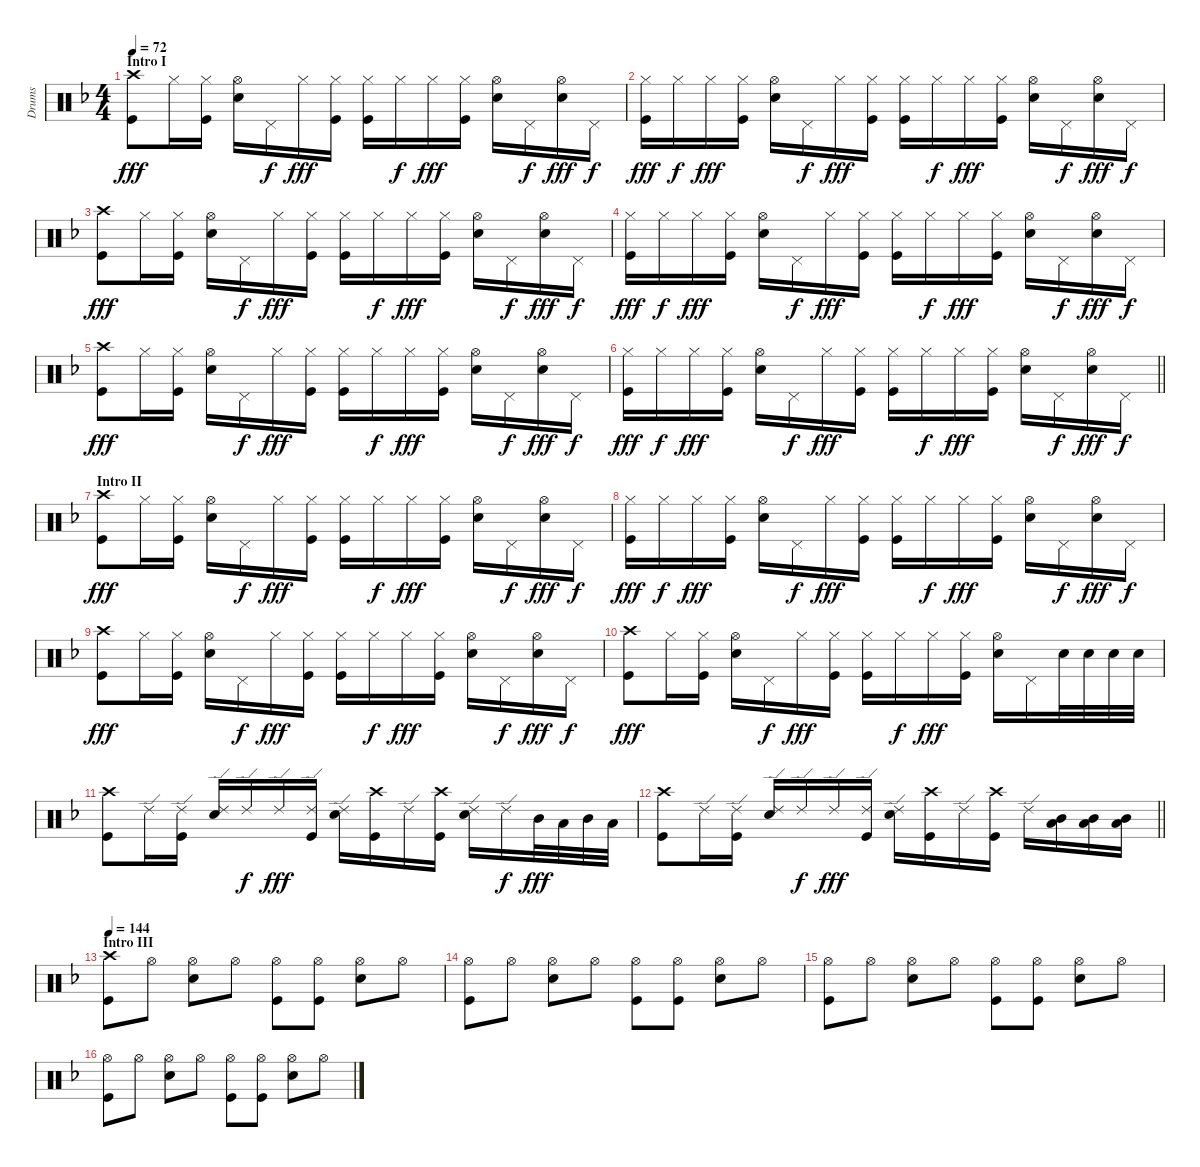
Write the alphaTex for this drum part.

\track ("Drums" "Drums") {instrument percussion}
\staff {score}
\articulation defaults
\ts (4 4)
\section ("" "Intro I")
\tempo 72
\clef neutral
\ks f
("Crash high (hit)" "Kick (hit)").8{dy fff} "Hi-Hat (closed)".16 ("Hi-Hat (closed)" "Kick (hit)").16 ("Hi-Hat (open)" "Snare (hit) 2").16 "Pedal Hi-Hat (hit)".16{dy f} "Hi-Hat (closed)".16{dy fff} ("Hi-Hat (closed)" "Kick (hit)").16 ("Hi-Hat (closed)" "Kick (hit)").16 "Hi-Hat (closed)".16{dy f} "Hi-Hat (closed)".16{dy fff} ("Hi-Hat (closed)" "Kick (hit)").16 ("Hi-Hat (open)" "Snare (hit) 2").16 "Pedal Hi-Hat (hit)".16{dy f} ("Hi-Hat (open)" "Snare (hit) 2").16{dy fff} "Pedal Hi-Hat (hit)".16{dy f} |
("Hi-Hat (closed)" "Kick (hit)").16{dy fff} "Hi-Hat (closed)".16{dy f} "Hi-Hat (closed)".16{dy fff} ("Hi-Hat (closed)" "Kick (hit)").16 ("Hi-Hat (open)" "Snare (hit) 2").16 "Pedal Hi-Hat (hit)".16{dy f} "Hi-Hat (closed)".16{dy fff} ("Hi-Hat (closed)" "Kick (hit)").16 ("Hi-Hat (closed)" "Kick (hit)").16 "Hi-Hat (closed)".16{dy f} "Hi-Hat (closed)".16{dy fff} ("Hi-Hat (closed)" "Kick (hit)").16 ("Hi-Hat (open)" "Snare (hit) 2").16 "Pedal Hi-Hat (hit)".16{dy f} ("Hi-Hat (open)" "Snare (hit) 2").16{dy fff} "Pedal Hi-Hat (hit)".16{dy f} |
("Crash high (hit)" "Kick (hit)").8{dy fff} "Hi-Hat (closed)".16 ("Hi-Hat (closed)" "Kick (hit)").16 ("Hi-Hat (open)" "Snare (hit) 2").16 "Pedal Hi-Hat (hit)".16{dy f} "Hi-Hat (closed)".16{dy fff} ("Hi-Hat (closed)" "Kick (hit)").16 ("Hi-Hat (closed)" "Kick (hit)").16 "Hi-Hat (closed)".16{dy f} "Hi-Hat (closed)".16{dy fff} ("Hi-Hat (closed)" "Kick (hit)").16 ("Hi-Hat (open)" "Snare (hit) 2").16 "Pedal Hi-Hat (hit)".16{dy f} ("Hi-Hat (open)" "Snare (hit) 2").16{dy fff} "Pedal Hi-Hat (hit)".16{dy f} |
("Hi-Hat (closed)" "Kick (hit)").16{dy fff} "Hi-Hat (closed)".16{dy f} "Hi-Hat (closed)".16{dy fff} ("Hi-Hat (closed)" "Kick (hit)").16 ("Hi-Hat (open)" "Snare (hit) 2").16 "Pedal Hi-Hat (hit)".16{dy f} "Hi-Hat (closed)".16{dy fff} ("Hi-Hat (closed)" "Kick (hit)").16 ("Hi-Hat (closed)" "Kick (hit)").16 "Hi-Hat (closed)".16{dy f} "Hi-Hat (closed)".16{dy fff} ("Hi-Hat (closed)" "Kick (hit)").16 ("Hi-Hat (open)" "Snare (hit) 2").16 "Pedal Hi-Hat (hit)".16{dy f} ("Hi-Hat (open)" "Snare (hit) 2").16{dy fff} "Pedal Hi-Hat (hit)".16{dy f} |
("Crash high (hit)" "Kick (hit)").8{dy fff} "Hi-Hat (closed)".16 ("Hi-Hat (closed)" "Kick (hit)").16 ("Hi-Hat (open)" "Snare (hit) 2").16 "Pedal Hi-Hat (hit)".16{dy f} "Hi-Hat (closed)".16{dy fff} ("Hi-Hat (closed)" "Kick (hit)").16 ("Hi-Hat (closed)" "Kick (hit)").16 "Hi-Hat (closed)".16{dy f} "Hi-Hat (closed)".16{dy fff} ("Hi-Hat (closed)" "Kick (hit)").16 ("Hi-Hat (open)" "Snare (hit) 2").16 "Pedal Hi-Hat (hit)".16{dy f} ("Hi-Hat (open)" "Snare (hit) 2").16{dy fff} "Pedal Hi-Hat (hit)".16{dy f} |
\barLineRight lightlight
("Hi-Hat (closed)" "Kick (hit)").16{dy fff} "Hi-Hat (closed)".16{dy f} "Hi-Hat (closed)".16{dy fff} ("Hi-Hat (closed)" "Kick (hit)").16 ("Hi-Hat (open)" "Snare (hit) 2").16 "Pedal Hi-Hat (hit)".16{dy f} "Hi-Hat (closed)".16{dy fff} ("Hi-Hat (closed)" "Kick (hit)").16 ("Hi-Hat (closed)" "Kick (hit)").16 "Hi-Hat (closed)".16{dy f} "Hi-Hat (closed)".16{dy fff} ("Hi-Hat (closed)" "Kick (hit)").16 ("Hi-Hat (open)" "Snare (hit) 2").16 "Pedal Hi-Hat (hit)".16{dy f} ("Hi-Hat (open)" "Snare (hit) 2").16{dy fff} "Pedal Hi-Hat (hit)".16{dy f} |
\section ("" "Intro II")
("Crash high (hit)" "Kick (hit)").8{dy fff} "Hi-Hat (closed)".16 ("Hi-Hat (closed)" "Kick (hit)").16 ("Hi-Hat (open)" "Snare (hit) 2").16 "Pedal Hi-Hat (hit)".16{dy f} "Hi-Hat (closed)".16{dy fff} ("Hi-Hat (closed)" "Kick (hit)").16 ("Hi-Hat (closed)" "Kick (hit)").16 "Hi-Hat (closed)".16{dy f} "Hi-Hat (closed)".16{dy fff} ("Hi-Hat (closed)" "Kick (hit)").16 ("Hi-Hat (open)" "Snare (hit) 2").16 "Pedal Hi-Hat (hit)".16{dy f} ("Hi-Hat (open)" "Snare (hit) 2").16{dy fff} "Pedal Hi-Hat (hit)".16{dy f} |
("Hi-Hat (closed)" "Kick (hit)").16{dy fff} "Hi-Hat (closed)".16{dy f} "Hi-Hat (closed)".16{dy fff} ("Hi-Hat (closed)" "Kick (hit)").16 ("Hi-Hat (open)" "Snare (hit) 2").16 "Pedal Hi-Hat (hit)".16{dy f} "Hi-Hat (closed)".16{dy fff} ("Hi-Hat (closed)" "Kick (hit)").16 ("Hi-Hat (closed)" "Kick (hit)").16 "Hi-Hat (closed)".16{dy f} "Hi-Hat (closed)".16{dy fff} ("Hi-Hat (closed)" "Kick (hit)").16 ("Hi-Hat (open)" "Snare (hit) 2").16 "Pedal Hi-Hat (hit)".16{dy f} ("Hi-Hat (open)" "Snare (hit) 2").16{dy fff} "Pedal Hi-Hat (hit)".16{dy f} |
("Crash high (hit)" "Kick (hit)").8{dy fff} "Hi-Hat (closed)".16 ("Hi-Hat (closed)" "Kick (hit)").16 ("Hi-Hat (open)" "Snare (hit) 2").16 "Pedal Hi-Hat (hit)".16{dy f} "Hi-Hat (closed)".16{dy fff} ("Hi-Hat (closed)" "Kick (hit)").16 ("Hi-Hat (closed)" "Kick (hit)").16 "Hi-Hat (closed)".16{dy f} "Hi-Hat (closed)".16{dy fff} ("Hi-Hat (closed)" "Kick (hit)").16 ("Hi-Hat (open)" "Snare (hit) 2").16 "Pedal Hi-Hat (hit)".16{dy f} ("Hi-Hat (open)" "Snare (hit) 2").16{dy fff} "Pedal Hi-Hat (hit)".16{dy f} |
("Crash high (hit)" "Kick (hit)").8{dy fff} "Hi-Hat (closed)".16 ("Hi-Hat (closed)" "Kick (hit)").16 ("Hi-Hat (open)" "Snare (hit) 2").16 "Pedal Hi-Hat (hit)".16{dy f} "Hi-Hat (closed)".16{dy fff} ("Hi-Hat (closed)" "Kick (hit)").16 ("Hi-Hat (closed)" "Kick (hit)").16 "Hi-Hat (closed)".16{dy f} "Hi-Hat (closed)".16{dy fff} ("Hi-Hat (closed)" "Kick (hit)").16 ("Hi-Hat (open)" "Snare (hit) 2").16 "Pedal Hi-Hat (hit)".16 "Snare (hit) 2".32 "Snare (hit) 2".32 "Snare (hit) 2".32 "Snare (hit) 2".32 |
("Crash high (hit)" "Kick (hit)").8 "Ride (edge) 2".16 ("Ride (edge) 2" "Kick (hit)").16 ("Ride (edge) 2" "Snare (hit) 2").16 "Ride (edge) 2".16{dy f} "Ride (edge) 2".16{dy fff} ("Ride (edge) 2" "Kick (hit)").16 ("Ride (edge) 2" "Snare (hit) 2").16 ("Crash high (hit)" "Kick (hit)").16 "Ride (edge) 2".16 ("Crash high (hit)" "Kick (hit)").16 ("Ride (edge) 2" "Snare (hit) 2").16 "Ride (edge) 2".16{dy f} "Mid Tom (hit)".32{dy fff} "Low Tom (hit)".32 "Mid Tom (hit)".32 "Low Tom (hit)".32 |
\barLineRight lightlight
("Crash high (hit)" "Kick (hit)").8 "Ride (edge) 2".16 ("Ride (edge) 2" "Kick (hit)").16 ("Ride (edge) 2" "Snare (hit) 2").16 "Ride (edge) 2".16{dy f} "Ride (edge) 2".16{dy fff} ("Ride (edge) 2" "Kick (hit)").16 ("Ride (edge) 2" "Snare (hit) 2").16 ("Crash high (hit)" "Kick (hit)").16 "Ride (edge) 2".16 ("Crash high (hit)" "Kick (hit)").16 "Ride (edge) 2".16 ("Low Tom (hit)" "Mid Tom (hit)").16 ("Low Tom (hit)" "Mid Tom (hit)").16 ("Low Tom (hit)" "Mid Tom (hit)").16 |
\section ("" "Intro III")
\tempo 144
("Crash high (hit)" "Kick (hit)").8 "Hi-Hat (open)".8 ("Hi-Hat (open)" "Snare (hit) 2").8 "Hi-Hat (open)".8 ("Hi-Hat (open)" "Kick (hit)").8 ("Hi-Hat (open)" "Kick (hit)").8 ("Hi-Hat (open)" "Snare (hit) 2").8 "Hi-Hat (open)".8 |
("Hi-Hat (open)" "Kick (hit)").8 "Hi-Hat (open)".8 ("Hi-Hat (open)" "Snare (hit) 2").8 "Hi-Hat (open)".8 ("Hi-Hat (open)" "Kick (hit)").8 ("Hi-Hat (open)" "Kick (hit)").8 ("Hi-Hat (open)" "Snare (hit) 2").8 "Hi-Hat (open)".8 |
("Hi-Hat (open)" "Kick (hit)").8 "Hi-Hat (open)".8 ("Hi-Hat (open)" "Snare (hit) 2").8 "Hi-Hat (open)".8 ("Hi-Hat (open)" "Kick (hit)").8 ("Hi-Hat (open)" "Kick (hit)").8 ("Hi-Hat (open)" "Snare (hit) 2").8 "Hi-Hat (open)".8 |
("Hi-Hat (open)" "Kick (hit)").8 "Hi-Hat (open)".8 ("Hi-Hat (open)" "Snare (hit) 2").8 "Hi-Hat (open)".8 ("Hi-Hat (open)" "Kick (hit)").8 ("Hi-Hat (open)" "Kick (hit)").8 ("Hi-Hat (open)" "Snare (hit) 2").8 "Hi-Hat (open)".8
